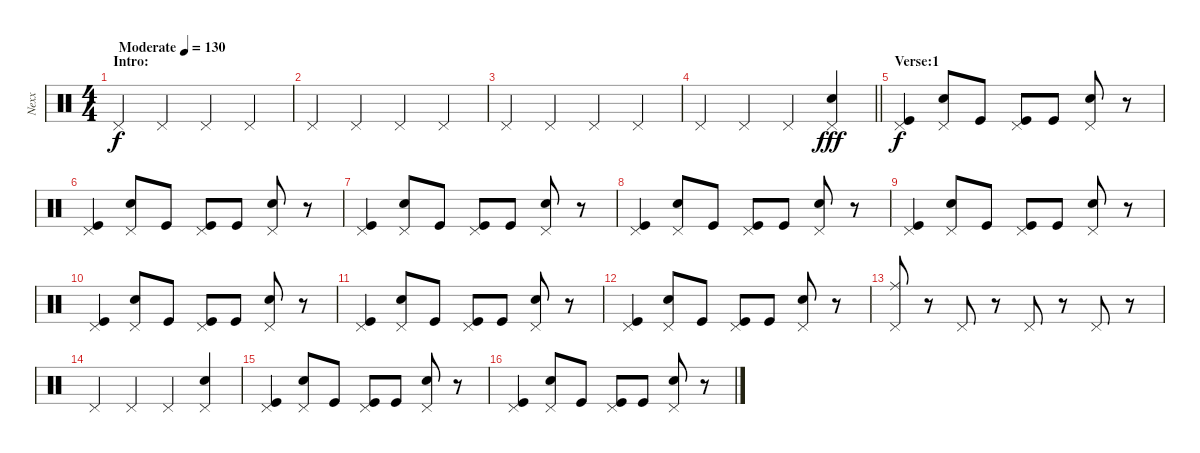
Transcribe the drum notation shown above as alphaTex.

\track ("Nexx" "Nexx") {instrument percussion}
\staff {score}
\articulation defaults
\ts (4 4)
\section ("" "Intro:")
\tempo (130 "Moderate")
\clef neutral
\ks c "Pedal Hi-Hat (hit)".4{dy f} "Pedal Hi-Hat (hit)".4 "Pedal Hi-Hat (hit)".4 "Pedal Hi-Hat (hit)".4
|
"Pedal Hi-Hat (hit)".4 "Pedal Hi-Hat (hit)".4 "Pedal Hi-Hat (hit)".4 "Pedal Hi-Hat (hit)".4 |
"Pedal Hi-Hat (hit)".4 "Pedal Hi-Hat (hit)".4 "Pedal Hi-Hat (hit)".4 "Pedal Hi-Hat (hit)".4 |
\barLineRight lightlight "Pedal Hi-Hat (hit)".4 "Pedal Hi-Hat (hit)".4 "Pedal Hi-Hat (hit)".4
("Electric Snare (hit)" "Pedal Hi-Hat (hit)").4{dy fff} |
\section ("" "Verse:1")
("Pedal Hi-Hat (hit)" "Kick (hit)").4{dy f} ("Pedal Hi-Hat (hit)" "Electric Snare (hit)").8 "Kick (hit)".8 ("Pedal Hi-Hat (hit)" "Kick (hit)").8 "Kick (hit)".8 ("Pedal Hi-Hat (hit)" "Electric Snare (hit)").8 r.8 |
("Pedal Hi-Hat (hit)" "Kick (hit)").4 ("Pedal Hi-Hat (hit)" "Electric Snare (hit)").8 "Kick (hit)".8 ("Pedal Hi-Hat (hit)" "Kick (hit)").8 "Kick (hit)".8 ("Pedal Hi-Hat (hit)" "Electric Snare (hit)").8 r.8 |
("Pedal Hi-Hat (hit)" "Kick (hit)").4 ("Pedal Hi-Hat (hit)" "Electric Snare (hit)").8 "Kick (hit)".8 ("Pedal Hi-Hat (hit)" "Kick (hit)").8 "Kick (hit)".8 ("Pedal Hi-Hat (hit)" "Electric Snare (hit)").8 r.8 |
("Pedal Hi-Hat (hit)" "Kick (hit)").4 ("Pedal Hi-Hat (hit)" "Electric Snare (hit)").8 "Kick (hit)".8 ("Pedal Hi-Hat (hit)" "Kick (hit)").8 "Kick (hit)".8 ("Pedal Hi-Hat (hit)" "Electric Snare (hit)").8 r.8 |
("Pedal Hi-Hat (hit)" "Kick (hit)").4 ("Pedal Hi-Hat (hit)" "Electric Snare (hit)").8 "Kick (hit)".8 ("Pedal Hi-Hat (hit)" "Kick (hit)").8 "Kick (hit)".8 ("Pedal Hi-Hat (hit)" "Electric Snare (hit)").8 r.8 |
("Pedal Hi-Hat (hit)" "Kick (hit)").4 ("Pedal Hi-Hat (hit)" "Electric Snare (hit)").8 "Kick (hit)".8 ("Pedal Hi-Hat (hit)" "Kick (hit)").8 "Kick (hit)".8 ("Pedal Hi-Hat (hit)" "Electric Snare (hit)").8 r.8 |
("Pedal Hi-Hat (hit)" "Kick (hit)").4 ("Pedal Hi-Hat (hit)" "Electric Snare (hit)").8 "Kick (hit)".8 ("Pedal Hi-Hat (hit)" "Kick (hit)").8 "Kick (hit)".8 ("Pedal Hi-Hat (hit)" "Electric Snare (hit)").8 r.8 |
("Pedal Hi-Hat (hit)" "Kick (hit)").4 ("Pedal Hi-Hat (hit)" "Electric Snare (hit)").8 "Kick (hit)".8 ("Pedal Hi-Hat (hit)" "Kick (hit)").8 "Kick (hit)".8 ("Pedal Hi-Hat (hit)" "Electric Snare (hit)").8 r.8 |
("Pedal Hi-Hat (hit)" "Ride (middle)").8 r.8 "Pedal Hi-Hat (hit)".8 r.8 "Pedal Hi-Hat (hit)".8 r.8 "Pedal Hi-Hat (hit)".8 r.8 |
"Pedal Hi-Hat (hit)".4 "Pedal Hi-Hat (hit)".4 "Pedal Hi-Hat (hit)".4 ("Electric Snare (hit)" "Pedal Hi-Hat (hit)").4 |
("Pedal Hi-Hat (hit)" "Kick (hit)").4 ("Pedal Hi-Hat (hit)" "Electric Snare (hit)").8 "Kick (hit)".8 ("Pedal Hi-Hat (hit)" "Kick (hit)").8 "Kick (hit)".8 ("Pedal Hi-Hat (hit)" "Electric Snare (hit)").8 r.8 |
("Pedal Hi-Hat (hit)" "Kick (hit)").4 ("Pedal Hi-Hat (hit)" "Electric Snare (hit)").8 "Kick (hit)".8 ("Pedal Hi-Hat (hit)" "Kick (hit)").8 "Kick (hit)".8 ("Pedal Hi-Hat (hit)" "Electric Snare (hit)").8 r.8
